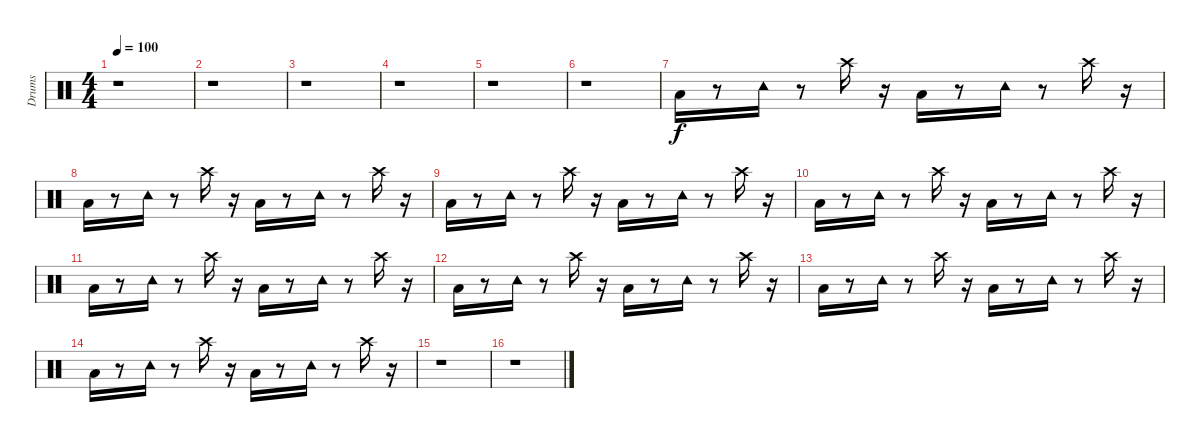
\track ("Drums" "Drums") {instrument percussion}
\staff {score}
\articulation defaults
\ts (4 4)
\tempo 100
\clef neutral
\ks c
r.1{dy f} |
r.1 |
r.1 |
r.1 |
r.1 |
r.1 |
"Low Floor Tom (hit)".16 r.8 "Tambourine (hit)".16 r.8 "Crash high (hit)".16 r.16 "Low Floor Tom (hit)".16 r.8 "Tambourine (hit)".16 r.8 "Crash high (hit)".16 r.16 |
"Low Floor Tom (hit)".16 r.8 "Tambourine (hit)".16 r.8 "Crash high (hit)".16 r.16 "Low Floor Tom (hit)".16 r.8 "Tambourine (hit)".16 r.8 "Crash high (hit)".16 r.16 |
"Low Floor Tom (hit)".16 r.8 "Tambourine (hit)".16 r.8 "Crash high (hit)".16 r.16 "Low Floor Tom (hit)".16 r.8 "Tambourine (hit)".16 r.8 "Crash high (hit)".16 r.16 |
"Low Floor Tom (hit)".16 r.8 "Tambourine (hit)".16 r.8 "Crash high (hit)".16 r.16 "Low Floor Tom (hit)".16 r.8 "Tambourine (hit)".16 r.8 "Crash high (hit)".16 r.16 |
"Low Floor Tom (hit)".16 r.8 "Tambourine (hit)".16 r.8 "Crash high (hit)".16 r.16 "Low Floor Tom (hit)".16 r.8 "Tambourine (hit)".16 r.8 "Crash high (hit)".16 r.16 |
"Low Floor Tom (hit)".16 r.8 "Tambourine (hit)".16 r.8 "Crash high (hit)".16 r.16 "Low Floor Tom (hit)".16 r.8 "Tambourine (hit)".16 r.8 "Crash high (hit)".16 r.16 |
"Low Floor Tom (hit)".16 r.8 "Tambourine (hit)".16 r.8 "Crash high (hit)".16 r.16 "Low Floor Tom (hit)".16 r.8 "Tambourine (hit)".16 r.8 "Crash high (hit)".16 r.16 |
"Low Floor Tom (hit)".16 r.8 "Tambourine (hit)".16 r.8 "Crash high (hit)".16 r.16 "Low Floor Tom (hit)".16 r.8 "Tambourine (hit)".16 r.8 "Crash high (hit)".16 r.16 |
r.1 |
r.1
